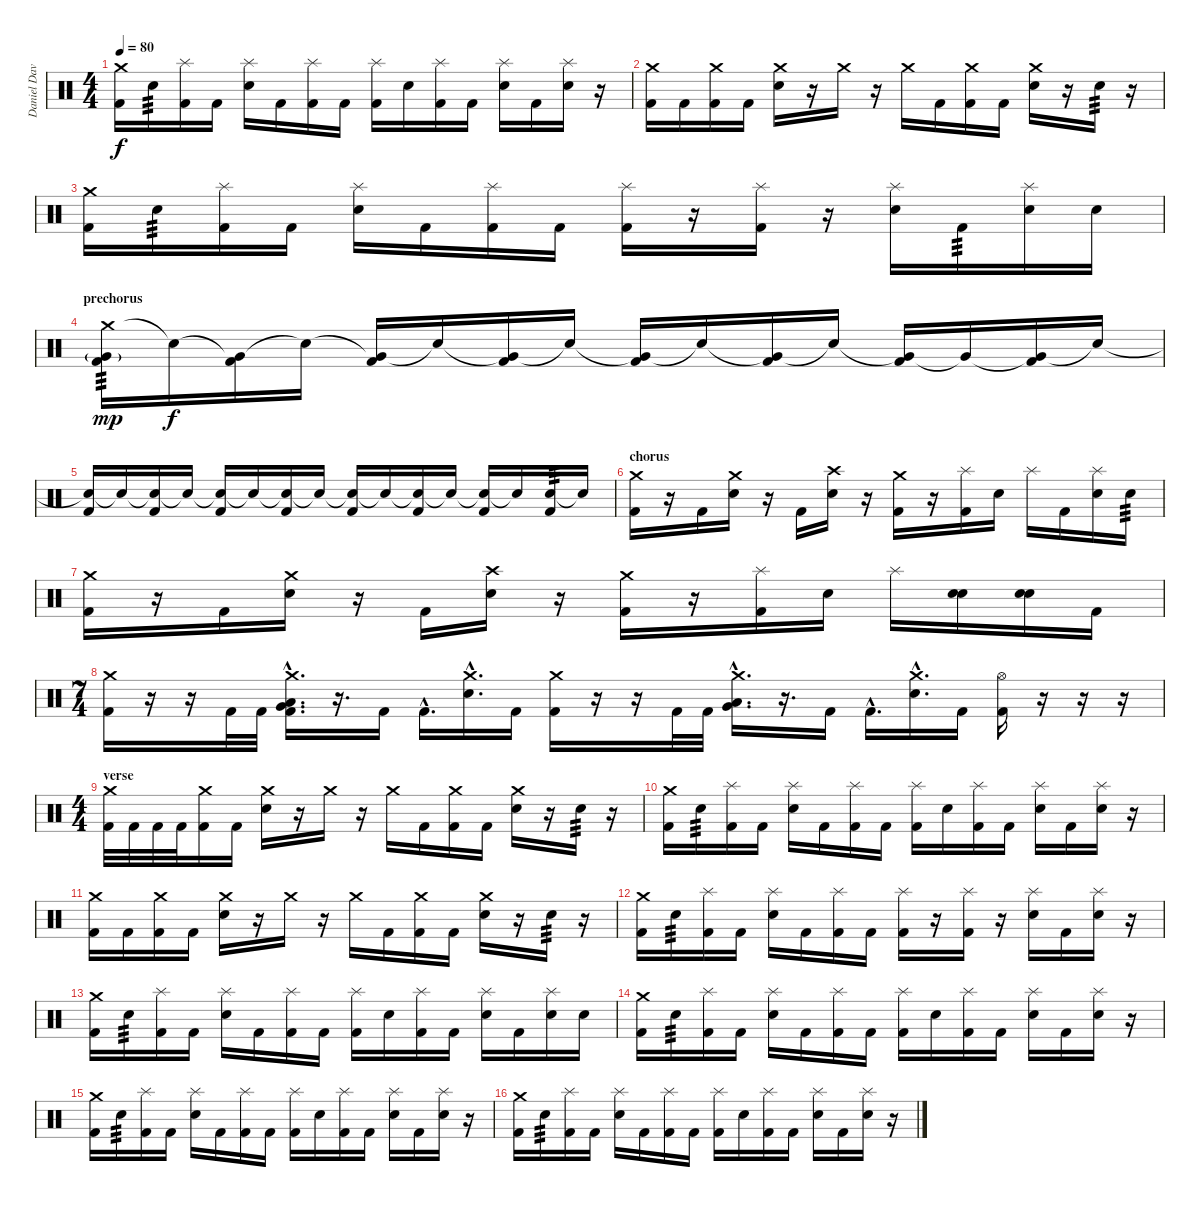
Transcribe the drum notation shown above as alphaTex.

\track ("Daniel Davison" "Daniel Dav") {instrument percussion}
\staff {score}
\articulation defaults
\ts (4 4)
\tempo 80
\clef neutral
\ks c
("Crash medium (hit)" "Kick (hit) 2").16{dy f} "Electric Snare (hit)".16{tp 3} ("Splash (hit)" "Kick (hit) 2").16 "Kick (hit) 2".16 ("Splash (hit)" "Electric Snare (hit)").16 "Kick (hit) 2".16 ("Splash (hit)" "Kick (hit) 2").16 "Kick (hit) 2".16 ("Splash (hit)" "Kick (hit) 2").16 "Electric Snare (hit)".16 ("Splash (hit)" "Kick (hit) 2").16 "Kick (hit) 2".16 ("Splash (hit)" "Electric Snare (hit)").16 "Kick (hit) 2".16 ("Splash (hit)" "Electric Snare (hit)").16 r.16 |
("Crash medium (hit)" "Kick (hit) 2").16 "Kick (hit) 2".16 ("Crash medium (hit)" "Kick (hit) 2").16 "Kick (hit) 2".16 ("Crash medium (hit)" "Electric Snare (hit)").16 r.16 "Crash medium (hit)".16 r.16 "Crash medium (hit)".16 "Kick (hit) 2".16 ("Crash medium (hit)" "Kick (hit) 2").16 "Kick (hit) 2".16 ("Crash medium (hit)" "Electric Snare (hit)").16 r.16 "Electric Snare (hit)".16{tp 3} r.16 |
("Crash medium (hit)" "Kick (hit) 2").16 "Electric Snare (hit)".16{tp 3} ("Splash (hit)" "Kick (hit) 2").16 "Kick (hit) 2".16 ("Splash (hit)" "Electric Snare (hit)").16 "Kick (hit) 2".16 ("Splash (hit)" "Kick (hit) 2").16 "Kick (hit) 2".16 ("Splash (hit)" "Kick (hit) 2").16 r.16 ("Splash (hit)" "Kick (hit) 2").16 r.16 ("Splash (hit)" "Electric Snare (hit)").16 "Kick (hit) 2".16{tp 3} ("Splash (hit)" "Electric Snare (hit)").16 "Electric Snare (hit)".16 |
\section ("" "prechorus")
("Crash medium (hit)" "Very Low Tom (hit)"{g} "Kick (hit) 2").16{tp 3 dy mp} "Snare (hit)"{t}.16{dy f} ("Very Low Tom (hit)"{t} "Kick (hit) 2").16 "Snare (hit)"{t}.16 ("Very Low Tom (hit)"{t} "Kick (hit) 2").16 "Snare (hit)"{t}.16 ("Very Low Tom (hit)"{t} "Kick (hit) 2").16 "Snare (hit)"{t}.16 ("Very Low Tom (hit)"{t} "Kick (hit) 2").16 "Snare (hit)"{t}.16 ("Very Low Tom (hit)"{t} "Kick (hit) 2").16 "Snare (hit)"{t}.16 ("Very Low Tom (hit)"{t} "Kick (hit) 2").16 "Very Low Tom (hit)"{t}.16 ("Very Low Tom (hit)"{t} "Kick (hit) 2").16 "Snare (hit)"{t}.16 |
("Snare (hit)"{t} "Kick (hit) 2").16 "Snare (hit)"{t}.16 ("Snare (hit)"{t} "Kick (hit) 2").16 "Snare (hit)"{t}.16 ("Snare (hit)"{t} "Kick (hit) 2").16 "Snare (hit)"{t}.16 ("Snare (hit)"{t} "Kick (hit) 2").16 "Snare (hit)"{t}.16 ("Electric Snare (hit)"{t} "Kick (hit) 2").16 "Snare (hit)"{t}.16 ("Snare (hit)"{t} "Kick (hit) 2").16 "Snare (hit)"{t}.16 ("Snare (hit)"{t} "Kick (hit) 2").16 "Snare (hit)"{t}.16 ("Electric Snare (hit)" "Kick (hit) 2").16{tp 3} "Snare (hit)"{t}.16 |
\section ("" "chorus")
("Crash medium (hit)" "Kick (hit) 2").16 r.16 "Kick (hit) 2".16 ("Crash medium (hit)" "Electric Snare (hit)").16 r.16 "Kick (hit) 2".16 ("Crash high (hit)" "Electric Snare (hit)").16 r.16 ("Crash medium (hit)" "Kick (hit) 2").16 r.16 ("Splash (hit)" "Kick (hit) 2").16 "Electric Snare (hit)".16 "Splash (hit)".16 "Kick (hit) 2".16 ("Splash (hit)" "Electric Snare (hit)").16 "Electric Snare (hit)".16{tp 3} |
("Crash medium (hit)" "Kick (hit) 2").16 r.16 "Kick (hit) 2".16 ("Crash medium (hit)" "Electric Snare (hit)").16 r.16 "Kick (hit) 2".16 ("Crash high (hit)" "Electric Snare (hit)").16 r.16 ("Crash medium (hit)" "Kick (hit) 2").16 r.16 ("Splash (hit)" "Kick (hit) 2").16 "Electric Snare (hit)".16 "Splash (hit)".16 ("Electric Snare (hit)" "Electric Snare (hit)").16 ("Electric Snare (hit)" "Electric Snare (hit)").16 "Kick (hit) 2".16 |
\ts (7 4)
("Crash medium (hit)" "Kick (hit) 2").16 r.16 r.16 "Kick (hit) 2".32 "Kick (hit) 2".32 ("Low Tom (hit)"{hac} "Crash medium (hit)"{hac} "Very Low Tom (hit)"{hac} "Kick (hit) 2"{hac}).16{d} r.16{d} "Kick (hit) 2".16 "Kick (hit) 2"{hac}.16{d} ("Crash medium (hit)"{hac} "Electric Snare (hit)"{hac}).16{d} "Kick (hit) 2".16 ("Crash medium (hit)" "Kick (hit) 2").16 r.16 r.16 "Kick (hit) 2".32 "Kick (hit) 2".32 ("Low Tom (hit)"{hac} "Crash medium (hit)"{hac} "Very Low Tom (hit)"{hac}).16{d} r.16{d} "Kick (hit) 2".16 "Kick (hit) 2"{hac}.16{d} ("Crash medium (hit)"{hac} "Electric Snare (hit)"{hac}).16{d} "Kick (hit) 2".16 ("Hi-Hat (open)" "Kick (hit) 2").16 r.16 r.16 r.16 |
\ts (4 4)
\section ("" "verse")
("Crash medium (hit)" "Kick (hit) 2").32 "Kick (hit) 2".32 "Kick (hit) 2".32 "Kick (hit) 2".32 ("Crash medium (hit)" "Kick (hit) 2").16 "Kick (hit) 2".16 ("Crash medium (hit)" "Electric Snare (hit)").16 r.16 "Crash medium (hit)".16 r.16 "Crash medium (hit)".16 "Kick (hit) 2".16 ("Crash medium (hit)" "Kick (hit) 2").16 "Kick (hit) 2".16 ("Crash medium (hit)" "Electric Snare (hit)").16 r.16 "Electric Snare (hit)".16{tp 3} r.16 |
("Crash medium (hit)" "Kick (hit) 2").16 "Electric Snare (hit)".16{tp 3} ("Splash (hit)" "Kick (hit) 2").16 "Kick (hit) 2".16 ("Splash (hit)" "Electric Snare (hit)").16 "Kick (hit) 2".16 ("Splash (hit)" "Kick (hit) 2").16 "Kick (hit) 2".16 ("Splash (hit)" "Kick (hit) 2").16 "Electric Snare (hit)".16 ("Splash (hit)" "Kick (hit) 2").16 "Kick (hit) 2".16 ("Splash (hit)" "Electric Snare (hit)").16 "Kick (hit) 2".16 ("Splash (hit)" "Electric Snare (hit)").16 r.16 |
("Crash medium (hit)" "Kick (hit) 2").16 "Kick (hit) 2".16 ("Crash medium (hit)" "Kick (hit) 2").16 "Kick (hit) 2".16 ("Crash medium (hit)" "Electric Snare (hit)").16 r.16 "Crash medium (hit)".16 r.16 "Crash medium (hit)".16 "Kick (hit) 2".16 ("Crash medium (hit)" "Kick (hit) 2").16 "Kick (hit) 2".16 ("Crash medium (hit)" "Electric Snare (hit)").16 r.16 "Electric Snare (hit)".16{tp 3} r.16 |
("Crash medium (hit)" "Kick (hit) 2").16 "Electric Snare (hit)".16{tp 3} ("Splash (hit)" "Kick (hit) 2").16 "Kick (hit) 2".16 ("Splash (hit)" "Electric Snare (hit)").16 "Kick (hit) 2".16 ("Splash (hit)" "Kick (hit) 2").16 "Kick (hit) 2".16 ("Splash (hit)" "Kick (hit) 2").16 r.16 ("Splash (hit)" "Kick (hit) 2").16 r.16 ("Splash (hit)" "Electric Snare (hit)").16 "Kick (hit) 2".16 ("Splash (hit)" "Electric Snare (hit)").16 r.16 |
("Crash medium (hit)" "Kick (hit) 2").16 "Electric Snare (hit)".16{tp 3} ("Splash (hit)" "Kick (hit) 2").16 "Kick (hit) 2".16 ("Splash (hit)" "Electric Snare (hit)").16 "Kick (hit) 2".16 ("Splash (hit)" "Kick (hit) 2").16 "Kick (hit) 2".16 ("Splash (hit)" "Kick (hit) 2").16 "Electric Snare (hit)".16 ("Splash (hit)" "Kick (hit) 2").16 "Kick (hit) 2".16 ("Splash (hit)" "Electric Snare (hit)").16 "Kick (hit) 2".16 ("Splash (hit)" "Electric Snare (hit)").16 "Electric Snare (hit)".16 |
("Crash medium (hit)" "Kick (hit) 2").16 "Electric Snare (hit)".16{tp 3} ("Splash (hit)" "Kick (hit) 2").16 "Kick (hit) 2".16 ("Splash (hit)" "Electric Snare (hit)").16 "Kick (hit) 2".16 ("Splash (hit)" "Kick (hit) 2").16 "Kick (hit) 2".16 ("Splash (hit)" "Kick (hit) 2").16 "Electric Snare (hit)".16 ("Splash (hit)" "Kick (hit) 2").16 "Kick (hit) 2".16 ("Splash (hit)" "Electric Snare (hit)").16 "Kick (hit) 2".16 ("Splash (hit)" "Electric Snare (hit)").16 r.16 |
("Crash medium (hit)" "Kick (hit) 2").16 "Electric Snare (hit)".16{tp 3} ("Splash (hit)" "Kick (hit) 2").16 "Kick (hit) 2".16 ("Splash (hit)" "Electric Snare (hit)").16 "Kick (hit) 2".16 ("Splash (hit)" "Kick (hit) 2").16 "Kick (hit) 2".16 ("Splash (hit)" "Kick (hit) 2").16 "Electric Snare (hit)".16 ("Splash (hit)" "Kick (hit) 2").16 "Kick (hit) 2".16 ("Splash (hit)" "Electric Snare (hit)").16 "Kick (hit) 2".16 ("Splash (hit)" "Electric Snare (hit)").16 r.16 |
("Crash medium (hit)" "Kick (hit) 2").16 "Electric Snare (hit)".16{tp 3} ("Splash (hit)" "Kick (hit) 2").16 "Kick (hit) 2".16 ("Splash (hit)" "Electric Snare (hit)").16 "Kick (hit) 2".16 ("Splash (hit)" "Kick (hit) 2").16 "Kick (hit) 2".16 ("Splash (hit)" "Kick (hit) 2").16 "Electric Snare (hit)".16 ("Splash (hit)" "Kick (hit) 2").16 "Kick (hit) 2".16 ("Splash (hit)" "Electric Snare (hit)").16 "Kick (hit) 2".16 ("Splash (hit)" "Electric Snare (hit)").16 r.16
